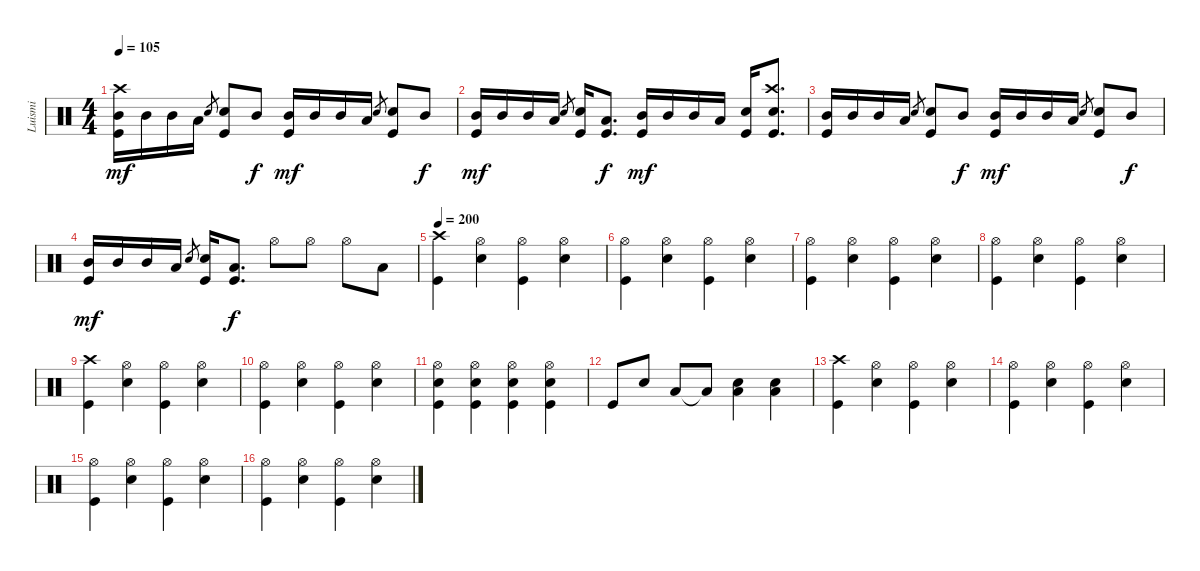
\track ("Luismi" "Luismi") {instrument percussion}
\staff {score}
\articulation defaults
\ts (4 4)
\tempo 105
\clef neutral
\ks c
("Mid Tom (hit)" "Kick (hit)" "Crash high (hit)").16{dy mf} "Mid Tom (hit)".16 "Mid Tom (hit)".16 "Low Tom (hit)".16 "Snare (hit) 2".8{gr} ("Snare (hit) 2" "Kick (hit)").8 "Mid Tom (hit)".8{dy f} ("Mid Tom (hit)" "Kick (hit)").16{dy mf} "Mid Tom (hit)".16 "Mid Tom (hit)".16 "Low Tom (hit)".16 "Snare (hit) 2".8{gr} ("Snare (hit) 2" "Kick (hit)").8 "Mid Tom (hit)".8{dy f} |
("Mid Tom (hit)" "Kick (hit)").16{dy mf} "Mid Tom (hit)".16 "Mid Tom (hit)".16 "Low Tom (hit)".16 "Snare (hit) 2".8{gr} ("Snare (hit) 2" "Kick (hit)").16 ("Low Tom (hit)" "Kick (hit)").8{d dy f} ("Mid Tom (hit)" "Kick (hit)").16{dy mf} "Mid Tom (hit)".16 "Mid Tom (hit)".16 "Low Tom (hit)".16 ("Snare (hit) 2" "Kick (hit)").16 ("Crash high (hit)" "Kick (hit)" "Snare (hit) 2").8{d} |
("Mid Tom (hit)" "Kick (hit)").16 "Mid Tom (hit)".16 "Mid Tom (hit)".16 "Low Tom (hit)".16 "Snare (hit) 2".8{gr} ("Snare (hit) 2" "Kick (hit)").8 "Mid Tom (hit)".8{dy f} ("Mid Tom (hit)" "Kick (hit)").16{dy mf} "Mid Tom (hit)".16 "Mid Tom (hit)".16 "Low Tom (hit)".16 "Snare (hit) 2".8{gr} ("Snare (hit) 2" "Kick (hit)").8 "Mid Tom (hit)".8{dy f} |
("Mid Tom (hit)" "Kick (hit)").16{dy mf} "Mid Tom (hit)".16 "Mid Tom (hit)".16 "Low Tom (hit)".16 "Snare (hit) 2".8{gr} ("Snare (hit) 2" "Kick (hit)").16 ("Low Tom (hit)" "Kick (hit)").8{d dy f} "Hi-Hat (open)".8 "Hi-Hat (open)".8 "Hi-Hat (open)".8 "Low Tom (hit)".8 |
\tempo 200
("Kick (hit)" "Crash high (hit)").4 ("Snare (hit) 2" "Hi-Hat (open)").4 ("Kick (hit)" "Hi-Hat (open)").4 ("Snare (hit) 2" "Hi-Hat (open)").4 |
("Kick (hit)" "Hi-Hat (open)").4 ("Hi-Hat (open)" "Snare (hit) 2").4 ("Kick (hit)" "Hi-Hat (open)").4 ("Snare (hit) 2" "Hi-Hat (open)").4 |
("Kick (hit)" "Hi-Hat (open)").4 ("Hi-Hat (open)" "Snare (hit) 2").4 ("Kick (hit)" "Hi-Hat (open)").4 ("Snare (hit) 2" "Hi-Hat (open)").4 |
("Kick (hit)" "Hi-Hat (open)").4 ("Hi-Hat (open)" "Snare (hit) 2").4 ("Kick (hit)" "Hi-Hat (open)").4 ("Snare (hit) 2" "Hi-Hat (open)").4 |
("Kick (hit)" "Crash high (hit)").4 ("Snare (hit) 2" "Hi-Hat (open)").4 ("Kick (hit)" "Hi-Hat (open)").4 ("Snare (hit) 2" "Hi-Hat (open)").4 |
("Kick (hit)" "Hi-Hat (open)").4 ("Hi-Hat (open)" "Snare (hit) 2").4 ("Kick (hit)" "Hi-Hat (open)").4 ("Snare (hit) 2" "Hi-Hat (open)").4 |
("Hi-Hat (open)" "Snare (hit) 2" "Kick (hit)").4 ("Hi-Hat (open)" "Snare (hit) 2" "Kick (hit)").4 ("Hi-Hat (open)" "Snare (hit) 2" "Kick (hit)").4 ("Hi-Hat (open)" "Snare (hit) 2" "Kick (hit)").4 |
"Kick (hit)".8 "Snare (hit) 2".8 "Low Tom (hit)".8 "Low Tom (hit)"{t}.8 ("Snare (hit) 2" "Low Tom (hit)").4 ("Snare (hit) 2" "Low Tom (hit)").4 |
("Kick (hit)" "Crash high (hit)").4 ("Snare (hit) 2" "Hi-Hat (open)").4 ("Kick (hit)" "Hi-Hat (open)").4 ("Snare (hit) 2" "Hi-Hat (open)").4 |
("Kick (hit)" "Hi-Hat (open)").4 ("Hi-Hat (open)" "Snare (hit) 2").4 ("Kick (hit)" "Hi-Hat (open)").4 ("Snare (hit) 2" "Hi-Hat (open)").4 |
("Kick (hit)" "Hi-Hat (open)").4 ("Hi-Hat (open)" "Snare (hit) 2").4 ("Kick (hit)" "Hi-Hat (open)").4 ("Snare (hit) 2" "Hi-Hat (open)").4 |
("Kick (hit)" "Hi-Hat (open)").4 ("Hi-Hat (open)" "Snare (hit) 2").4 ("Kick (hit)" "Hi-Hat (open)").4 ("Snare (hit) 2" "Hi-Hat (open)").4
